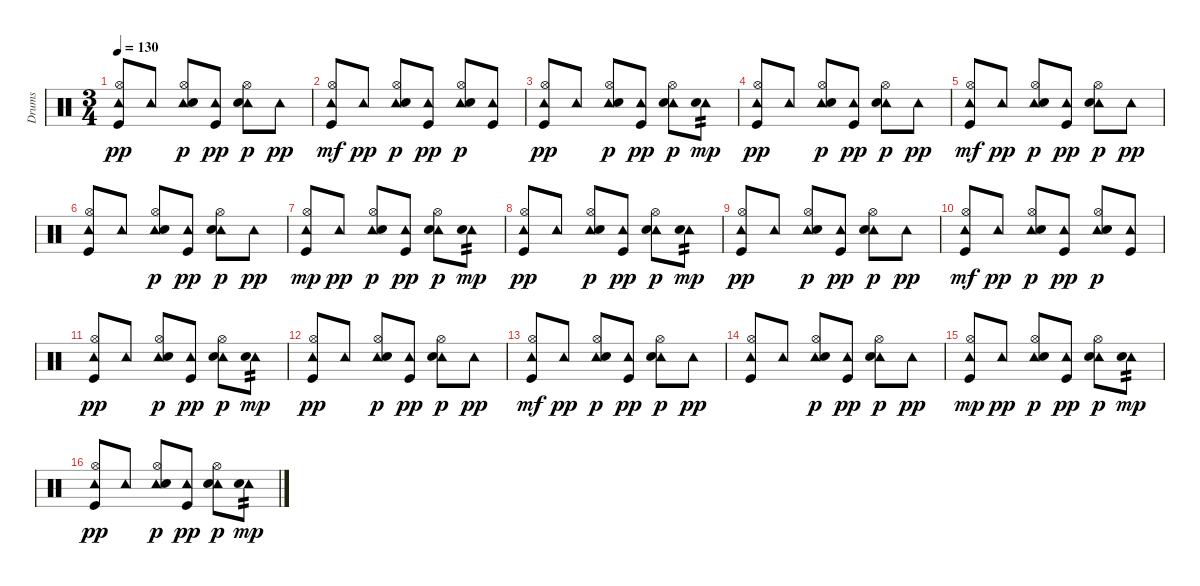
\track ("Drums" "Drums") {instrument percussion}
\staff {score}
\articulation defaults
\ts (3 4)
\tempo 130
\clef neutral
\ks c
("Tambourine (hit)" "Hi-Hat (open)" "Kick (hit)").8{dy pp} "Tambourine (hit)".8 ("Tambourine (hit)" "Hi-Hat (open)" "Snare (hit) 2").8{dy p} ("Tambourine (hit)" "Kick (hit)").8{dy pp} ("Tambourine (hit)" "Hi-Hat (open)" "Snare (hit) 2").8{dy p} "Tambourine (hit)".8{dy pp} |
("Tambourine (hit)" "Hi-Hat (open)" "Kick (hit)").8{dy mf} "Tambourine (hit)".8{dy pp} ("Tambourine (hit)" "Hi-Hat (open)" "Snare (hit) 2").8{dy p} ("Tambourine (hit)" "Kick (hit)").8{dy pp} ("Tambourine (hit)" "Hi-Hat (open)" "Snare (hit) 2").8{dy p} ("Tambourine (hit)" "Kick (hit)").8 |
("Tambourine (hit)" "Hi-Hat (open)" "Kick (hit)").8{dy pp} "Tambourine (hit)".8 ("Tambourine (hit)" "Hi-Hat (open)" "Snare (hit) 2").8{dy p} ("Tambourine (hit)" "Kick (hit)").8{dy pp} ("Tambourine (hit)" "Hi-Hat (open)" "Snare (hit) 2").8{dy p} ("Tambourine (hit)" "Snare (hit) 2").8{tp 2 dy mp} |
("Tambourine (hit)" "Hi-Hat (open)" "Kick (hit)").8{dy pp} "Tambourine (hit)".8 ("Tambourine (hit)" "Hi-Hat (open)" "Snare (hit) 2").8{dy p} ("Tambourine (hit)" "Kick (hit)").8{dy pp} ("Tambourine (hit)" "Hi-Hat (open)" "Snare (hit) 2").8{dy p} "Tambourine (hit)".8{dy pp} |
("Tambourine (hit)" "Hi-Hat (open)" "Kick (hit)").8{dy mf} "Tambourine (hit)".8{dy pp} ("Tambourine (hit)" "Hi-Hat (open)" "Snare (hit) 2").8{dy p} ("Tambourine (hit)" "Kick (hit)").8{dy pp} ("Tambourine (hit)" "Hi-Hat (open)" "Snare (hit) 2").8{dy p} "Tambourine (hit)".8{dy pp} |
("Tambourine (hit)" "Hi-Hat (open)" "Kick (hit)").8 "Tambourine (hit)".8 ("Tambourine (hit)" "Hi-Hat (open)" "Snare (hit) 2").8{dy p} ("Tambourine (hit)" "Kick (hit)").8{dy pp} ("Tambourine (hit)" "Hi-Hat (open)" "Snare (hit) 2").8{dy p} "Tambourine (hit)".8{dy pp} |
("Tambourine (hit)" "Hi-Hat (open)" "Kick (hit)").8{dy mp} "Tambourine (hit)".8{dy pp} ("Tambourine (hit)" "Hi-Hat (open)" "Snare (hit) 2").8{dy p} ("Tambourine (hit)" "Kick (hit)").8{dy pp} ("Tambourine (hit)" "Hi-Hat (open)" "Snare (hit) 2").8{dy p} ("Tambourine (hit)" "Snare (hit) 2").8{tp 2 dy mp} |
("Tambourine (hit)" "Hi-Hat (open)" "Kick (hit)").8{dy pp} "Tambourine (hit)".8 ("Tambourine (hit)" "Hi-Hat (open)" "Snare (hit) 2").8{dy p} ("Tambourine (hit)" "Kick (hit)").8{dy pp} ("Tambourine (hit)" "Hi-Hat (open)" "Snare (hit) 2").8{dy p} ("Tambourine (hit)" "Snare (hit) 2").8{tp 2 dy mp} |
("Tambourine (hit)" "Hi-Hat (open)" "Kick (hit)").8{dy pp} "Tambourine (hit)".8 ("Tambourine (hit)" "Hi-Hat (open)" "Snare (hit) 2").8{dy p} ("Tambourine (hit)" "Kick (hit)").8{dy pp} ("Tambourine (hit)" "Hi-Hat (open)" "Snare (hit) 2").8{dy p} "Tambourine (hit)".8{dy pp} |
("Tambourine (hit)" "Hi-Hat (open)" "Kick (hit)").8{dy mf} "Tambourine (hit)".8{dy pp} ("Tambourine (hit)" "Hi-Hat (open)" "Snare (hit) 2").8{dy p} ("Tambourine (hit)" "Kick (hit)").8{dy pp} ("Tambourine (hit)" "Hi-Hat (open)" "Snare (hit) 2").8{dy p} ("Tambourine (hit)" "Kick (hit)").8 |
("Tambourine (hit)" "Hi-Hat (open)" "Kick (hit)").8{dy pp} "Tambourine (hit)".8 ("Tambourine (hit)" "Hi-Hat (open)" "Snare (hit) 2").8{dy p} ("Tambourine (hit)" "Kick (hit)").8{dy pp} ("Tambourine (hit)" "Hi-Hat (open)" "Snare (hit) 2").8{dy p} ("Tambourine (hit)" "Snare (hit) 2").8{tp 2 dy mp} |
("Tambourine (hit)" "Hi-Hat (open)" "Kick (hit)").8{dy pp} "Tambourine (hit)".8 ("Tambourine (hit)" "Hi-Hat (open)" "Snare (hit) 2").8{dy p} ("Tambourine (hit)" "Kick (hit)").8{dy pp} ("Tambourine (hit)" "Hi-Hat (open)" "Snare (hit) 2").8{dy p} "Tambourine (hit)".8{dy pp} |
("Tambourine (hit)" "Hi-Hat (open)" "Kick (hit)").8{dy mf} "Tambourine (hit)".8{dy pp} ("Tambourine (hit)" "Hi-Hat (open)" "Snare (hit) 2").8{dy p} ("Tambourine (hit)" "Kick (hit)").8{dy pp} ("Tambourine (hit)" "Hi-Hat (open)" "Snare (hit) 2").8{dy p} "Tambourine (hit)".8{dy pp} |
("Tambourine (hit)" "Hi-Hat (open)" "Kick (hit)").8 "Tambourine (hit)".8 ("Tambourine (hit)" "Hi-Hat (open)" "Snare (hit) 2").8{dy p} ("Tambourine (hit)" "Kick (hit)").8{dy pp} ("Tambourine (hit)" "Hi-Hat (open)" "Snare (hit) 2").8{dy p} "Tambourine (hit)".8{dy pp} |
("Tambourine (hit)" "Hi-Hat (open)" "Kick (hit)").8{dy mp} "Tambourine (hit)".8{dy pp} ("Tambourine (hit)" "Hi-Hat (open)" "Snare (hit) 2").8{dy p} ("Tambourine (hit)" "Kick (hit)").8{dy pp} ("Tambourine (hit)" "Hi-Hat (open)" "Snare (hit) 2").8{dy p} ("Tambourine (hit)" "Snare (hit) 2").8{tp 2 dy mp} |
("Tambourine (hit)" "Hi-Hat (open)" "Kick (hit)").8{dy pp} "Tambourine (hit)".8 ("Tambourine (hit)" "Hi-Hat (open)" "Snare (hit) 2").8{dy p} ("Tambourine (hit)" "Kick (hit)").8{dy pp} ("Tambourine (hit)" "Hi-Hat (open)" "Snare (hit) 2").8{dy p} ("Tambourine (hit)" "Snare (hit) 2").8{tp 2 dy mp}
